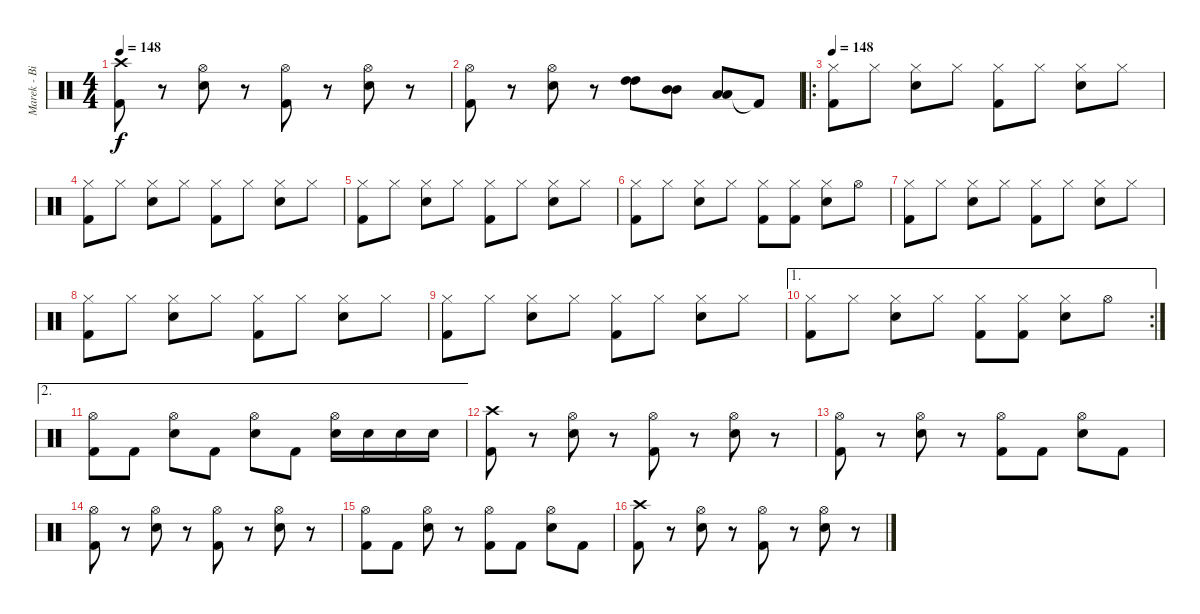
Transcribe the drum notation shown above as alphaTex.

\track ("Marek - Bicie" "Marek - Bi") {instrument percussion}
\staff {score}
\articulation defaults
\ts (4 4)
\tempo 148
\clef neutral
\ks c
("Crash high (hit)" "Kick (hit) 2").8{dy f} r.8 ("Hi-Hat (open)" "Electric Snare (hit)").8 r.8 ("Hi-Hat (open)" "Kick (hit) 2").8 r.8 ("Hi-Hat (open)" "Electric Snare (hit)").8 r.8 |
("Hi-Hat (open)" "Kick (hit) 2").8 r.8 ("Hi-Hat (open)" "Electric Snare (hit)").8 r.8 ("High Tom (hit)" "High Tom (hit)").8 ("Mid Tom (hit)" "Mid Tom (hit)").8 ("Low Tom (hit)" "Low Tom (hit)").8 "Kick (hit) 2"{t}.8 |
\ro
\tempo 148
("Hi-Hat (closed)" "Kick (hit) 2").8 "Hi-Hat (closed)".8 ("Hi-Hat (closed)" "Electric Snare (hit)").8 "Hi-Hat (closed)".8 ("Hi-Hat (closed)" "Kick (hit) 2").8 "Hi-Hat (closed)".8 ("Hi-Hat (closed)" "Electric Snare (hit)").8 "Hi-Hat (closed)".8 |
("Hi-Hat (closed)" "Kick (hit) 2").8 "Hi-Hat (closed)".8 ("Hi-Hat (closed)" "Electric Snare (hit)").8 "Hi-Hat (closed)".8 ("Hi-Hat (closed)" "Kick (hit) 2").8 "Hi-Hat (closed)".8 ("Hi-Hat (closed)" "Electric Snare (hit)").8 "Hi-Hat (closed)".8 |
("Hi-Hat (closed)" "Kick (hit) 2").8 "Hi-Hat (closed)".8 ("Hi-Hat (closed)" "Electric Snare (hit)").8 "Hi-Hat (closed)".8 ("Hi-Hat (closed)" "Kick (hit) 2").8 "Hi-Hat (closed)".8 ("Hi-Hat (closed)" "Electric Snare (hit)").8 "Hi-Hat (closed)".8 |
("Hi-Hat (closed)" "Kick (hit) 2").8 "Hi-Hat (closed)".8 ("Hi-Hat (closed)" "Electric Snare (hit)").8 "Hi-Hat (closed)".8 ("Hi-Hat (closed)" "Kick (hit) 2").8 ("Hi-Hat (closed)" "Kick (hit) 2").8 ("Hi-Hat (closed)" "Electric Snare (hit)").8 "Hi-Hat (open)".8 |
("Hi-Hat (closed)" "Kick (hit) 2").8 "Hi-Hat (closed)".8 ("Hi-Hat (closed)" "Electric Snare (hit)").8 "Hi-Hat (closed)".8 ("Hi-Hat (closed)" "Kick (hit) 2").8 "Hi-Hat (closed)".8 ("Hi-Hat (closed)" "Electric Snare (hit)").8 "Hi-Hat (closed)".8 |
("Hi-Hat (closed)" "Kick (hit) 2").8 "Hi-Hat (closed)".8 ("Hi-Hat (closed)" "Electric Snare (hit)").8 "Hi-Hat (closed)".8 ("Hi-Hat (closed)" "Kick (hit) 2").8 "Hi-Hat (closed)".8 ("Hi-Hat (closed)" "Electric Snare (hit)").8 "Hi-Hat (closed)".8 |
("Hi-Hat (closed)" "Kick (hit) 2").8 "Hi-Hat (closed)".8 ("Hi-Hat (closed)" "Electric Snare (hit)").8 "Hi-Hat (closed)".8 ("Hi-Hat (closed)" "Kick (hit) 2").8 "Hi-Hat (closed)".8 ("Hi-Hat (closed)" "Electric Snare (hit)").8 "Hi-Hat (closed)".8 |
\ae 1
\rc 2
("Hi-Hat (closed)" "Kick (hit) 2").8 "Hi-Hat (closed)".8 ("Hi-Hat (closed)" "Electric Snare (hit)").8 "Hi-Hat (closed)".8 ("Hi-Hat (closed)" "Kick (hit) 2").8 ("Hi-Hat (closed)" "Kick (hit) 2").8 ("Hi-Hat (closed)" "Electric Snare (hit)").8 "Hi-Hat (open)".8 |
\ae 2
("Hi-Hat (open)" "Kick (hit) 2").8 "Kick (hit) 2".8 ("Hi-Hat (open)" "Electric Snare (hit)").8 "Kick (hit) 2".8 ("Hi-Hat (open)" "Electric Snare (hit)").8 "Kick (hit) 2".8 ("Hi-Hat (open)" "Electric Snare (hit)").16 "Electric Snare (hit)".16 "Electric Snare (hit)".16 "Electric Snare (hit)".16 |
("Crash high (hit)" "Kick (hit) 2").8 r.8 ("Hi-Hat (open)" "Electric Snare (hit)").8 r.8 ("Hi-Hat (open)" "Kick (hit) 2").8 r.8 ("Hi-Hat (open)" "Electric Snare (hit)").8 r.8 |
("Hi-Hat (open)" "Kick (hit) 2").8 r.8 ("Hi-Hat (open)" "Electric Snare (hit)").8 r.8 ("Hi-Hat (open)" "Kick (hit) 2").8 "Kick (hit) 2".8 ("Hi-Hat (open)" "Electric Snare (hit)").8 "Kick (hit) 2".8 |
("Hi-Hat (open)" "Kick (hit) 2").8 r.8 ("Hi-Hat (open)" "Electric Snare (hit)").8 r.8 ("Hi-Hat (open)" "Kick (hit) 2").8 r.8 ("Hi-Hat (open)" "Electric Snare (hit)").8 r.8 |
("Hi-Hat (open)" "Kick (hit) 2").8 "Kick (hit) 2".8 ("Hi-Hat (open)" "Electric Snare (hit)").8 r.8 ("Hi-Hat (open)" "Kick (hit) 2").8 "Kick (hit) 2".8 ("Hi-Hat (open)" "Electric Snare (hit)").8 "Kick (hit) 2".8 |
("Crash high (hit)" "Kick (hit) 2").8 r.8 ("Hi-Hat (open)" "Electric Snare (hit)").8 r.8 ("Hi-Hat (open)" "Kick (hit) 2").8 r.8 ("Hi-Hat (open)" "Electric Snare (hit)").8 r.8
